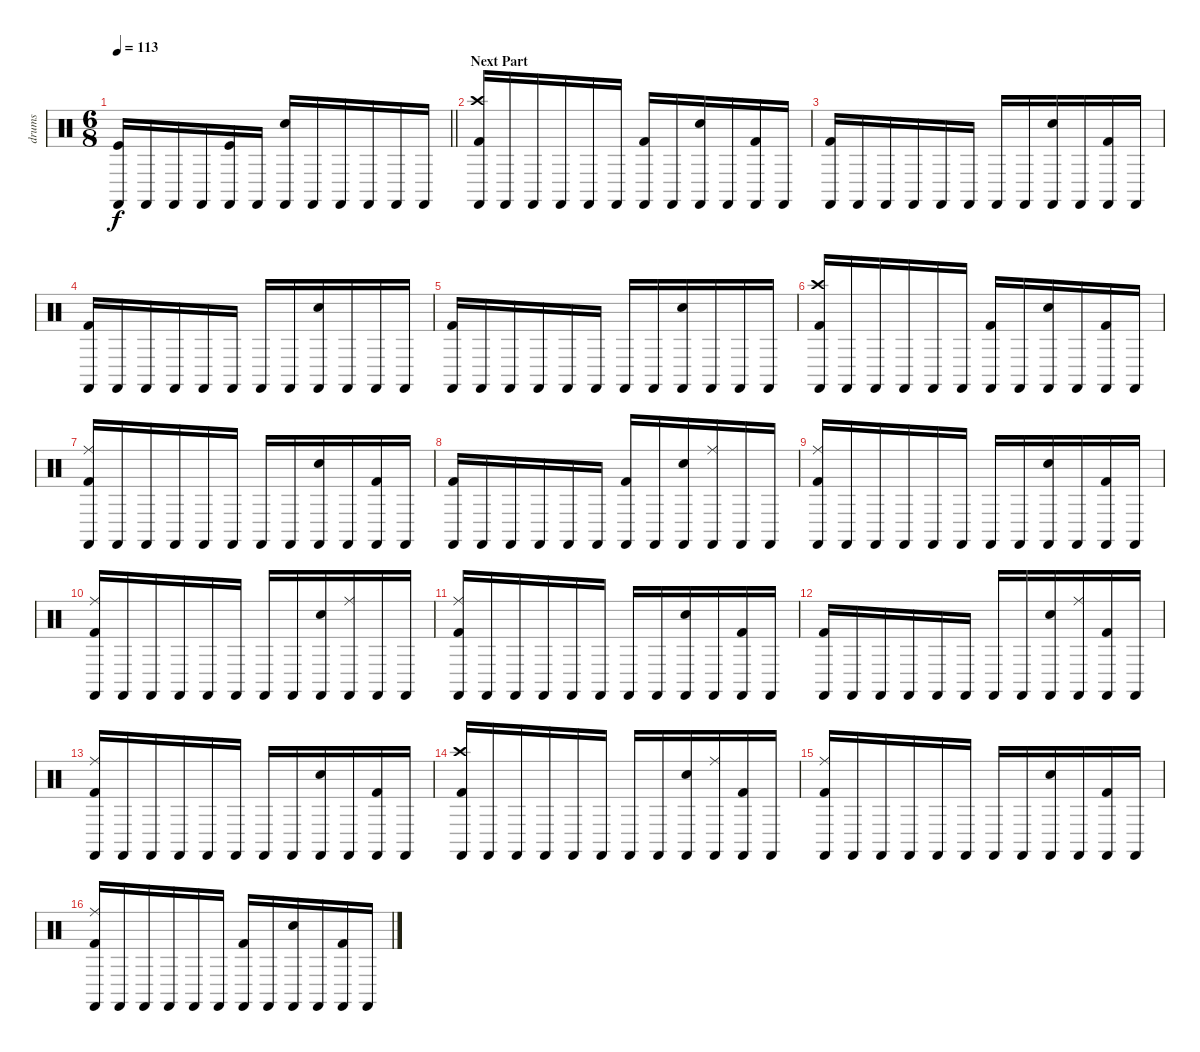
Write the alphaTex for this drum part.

\track ("drums" "drums") {instrument percussion}
\staff {score}
\articulation defaults
\ts (6 8)
\tempo 113
\clef neutral
\barLineRight lightlight
\ks c
("Kick (hit)" "Castanets (hit)").16{dy f} "Castanets (hit)".16 "Castanets (hit)".16 "Castanets (hit)".16 ("Kick (hit)" "Castanets (hit)").16 "Castanets (hit)".16 ("Electric Snare (hit)" "Castanets (hit)").16 "Castanets (hit)".16 "Castanets (hit)".16 "Castanets (hit)".16 "Castanets (hit)".16 "Castanets (hit)".16 |
\section ("" "Next Part")
("Crash high (hit)" "Kick (hit) 2" "Castanets (hit)").16 "Castanets (hit)".16 "Castanets (hit)".16 "Castanets (hit)".16 "Castanets (hit)".16 "Castanets (hit)".16 ("Kick (hit) 2" "Castanets (hit)").16 "Castanets (hit)".16 ("Electric Snare (hit)" "Castanets (hit)").16 "Castanets (hit)".16 ("Kick (hit) 2" "Castanets (hit)").16 "Castanets (hit)".16 |
("Kick (hit) 2" "Castanets (hit)").16 "Castanets (hit)".16 "Castanets (hit)".16 "Castanets (hit)".16 "Castanets (hit)".16 "Castanets (hit)".16 "Castanets (hit)".16 "Castanets (hit)".16 ("Electric Snare (hit)" "Castanets (hit)").16 "Castanets (hit)".16 ("Kick (hit) 2" "Castanets (hit)").16 "Castanets (hit)".16 |
("Kick (hit) 2" "Castanets (hit)").16 "Castanets (hit)".16 "Castanets (hit)".16 "Castanets (hit)".16 "Castanets (hit)".16 "Castanets (hit)".16 "Castanets (hit)".16 "Castanets (hit)".16 ("Electric Snare (hit)" "Castanets (hit)").16 "Castanets (hit)".16 "Castanets (hit)".16 "Castanets (hit)".16 |
("Kick (hit) 2" "Castanets (hit)").16 "Castanets (hit)".16 "Castanets (hit)".16 "Castanets (hit)".16 "Castanets (hit)".16 "Castanets (hit)".16 "Castanets (hit)".16 "Castanets (hit)".16 ("Electric Snare (hit)" "Castanets (hit)").16 "Castanets (hit)".16 "Castanets (hit)".16 "Castanets (hit)".16 |
("Crash high (hit)" "Kick (hit) 2" "Castanets (hit)").16 "Castanets (hit)".16 "Castanets (hit)".16 "Castanets (hit)".16 "Castanets (hit)".16 "Castanets (hit)".16 ("Kick (hit) 2" "Castanets (hit)").16 "Castanets (hit)".16 ("Electric Snare (hit)" "Castanets (hit)").16 "Castanets (hit)".16 ("Kick (hit) 2" "Castanets (hit)").16 "Castanets (hit)".16 |
("Ride (middle)" "Kick (hit) 2" "Castanets (hit)").16 "Castanets (hit)".16 "Castanets (hit)".16 "Castanets (hit)".16 "Castanets (hit)".16 "Castanets (hit)".16 "Castanets (hit)".16 "Castanets (hit)".16 ("Electric Snare (hit)" "Castanets (hit)").16 "Castanets (hit)".16 ("Kick (hit) 2" "Castanets (hit)").16 "Castanets (hit)".16 |
("Kick (hit) 2" "Castanets (hit)").16 "Castanets (hit)".16 "Castanets (hit)".16 "Castanets (hit)".16 "Castanets (hit)".16 "Castanets (hit)".16 ("Kick (hit) 2" "Castanets (hit)").16 "Castanets (hit)".16 ("Electric Snare (hit)" "Castanets (hit)").16 ("Ride (middle)" "Castanets (hit)").16 "Castanets (hit)".16 "Castanets (hit)".16 |
("Ride (middle)" "Kick (hit) 2" "Castanets (hit)").16 "Castanets (hit)".16 "Castanets (hit)".16 "Castanets (hit)".16 "Castanets (hit)".16 "Castanets (hit)".16 "Castanets (hit)".16 "Castanets (hit)".16 ("Electric Snare (hit)" "Castanets (hit)").16 "Castanets (hit)".16 ("Kick (hit) 2" "Castanets (hit)").16 "Castanets (hit)".16 |
("Ride (middle)" "Kick (hit) 2" "Castanets (hit)").16 "Castanets (hit)".16 "Castanets (hit)".16 "Castanets (hit)".16 "Castanets (hit)".16 "Castanets (hit)".16 "Castanets (hit)".16 "Castanets (hit)".16 ("Electric Snare (hit)" "Castanets (hit)").16 ("Ride (middle)" "Castanets (hit)").16 "Castanets (hit)".16 "Castanets (hit)".16 |
("Kick (hit) 2" "Ride (middle)" "Castanets (hit)").16 "Castanets (hit)".16 "Castanets (hit)".16 "Castanets (hit)".16 "Castanets (hit)".16 "Castanets (hit)".16 "Castanets (hit)".16 "Castanets (hit)".16 ("Electric Snare (hit)" "Castanets (hit)").16 "Castanets (hit)".16 ("Kick (hit) 2" "Castanets (hit)").16 "Castanets (hit)".16 |
("Kick (hit) 2" "Castanets (hit)").16 "Castanets (hit)".16 "Castanets (hit)".16 "Castanets (hit)".16 "Castanets (hit)".16 "Castanets (hit)".16 "Castanets (hit)".16 "Castanets (hit)".16 ("Electric Snare (hit)" "Castanets (hit)").16 ("Ride (middle)" "Castanets (hit)").16 ("Kick (hit) 2" "Castanets (hit)").16 "Castanets (hit)".16 |
("Kick (hit) 2" "Ride (middle)" "Castanets (hit)").16 "Castanets (hit)".16 "Castanets (hit)".16 "Castanets (hit)".16 "Castanets (hit)".16 "Castanets (hit)".16 "Castanets (hit)".16 "Castanets (hit)".16 ("Electric Snare (hit)" "Castanets (hit)").16 "Castanets (hit)".16 ("Kick (hit) 2" "Castanets (hit)").16 "Castanets (hit)".16 |
("Crash high (hit)" "Kick (hit) 2" "Castanets (hit)").16 "Castanets (hit)".16 "Castanets (hit)".16 "Castanets (hit)".16 "Castanets (hit)".16 "Castanets (hit)".16 "Castanets (hit)".16 "Castanets (hit)".16 ("Electric Snare (hit)" "Castanets (hit)").16 ("Ride (middle)" "Castanets (hit)").16 ("Kick (hit) 2" "Castanets (hit)").16 "Castanets (hit)".16 |
("Ride (middle)" "Kick (hit) 2" "Castanets (hit)").16 "Castanets (hit)".16 "Castanets (hit)".16 "Castanets (hit)".16 "Castanets (hit)".16 "Castanets (hit)".16 "Castanets (hit)".16 "Castanets (hit)".16 ("Electric Snare (hit)" "Castanets (hit)").16 "Castanets (hit)".16 ("Kick (hit) 2" "Castanets (hit)").16 "Castanets (hit)".16 |
("Ride (middle)" "Kick (hit) 2" "Castanets (hit)").16 "Castanets (hit)".16 "Castanets (hit)".16 "Castanets (hit)".16 "Castanets (hit)".16 "Castanets (hit)".16 ("Kick (hit) 2" "Castanets (hit)").16 "Castanets (hit)".16 ("Electric Snare (hit)" "Castanets (hit)").16 "Castanets (hit)".16 ("Kick (hit) 2" "Castanets (hit)").16 "Castanets (hit)".16
